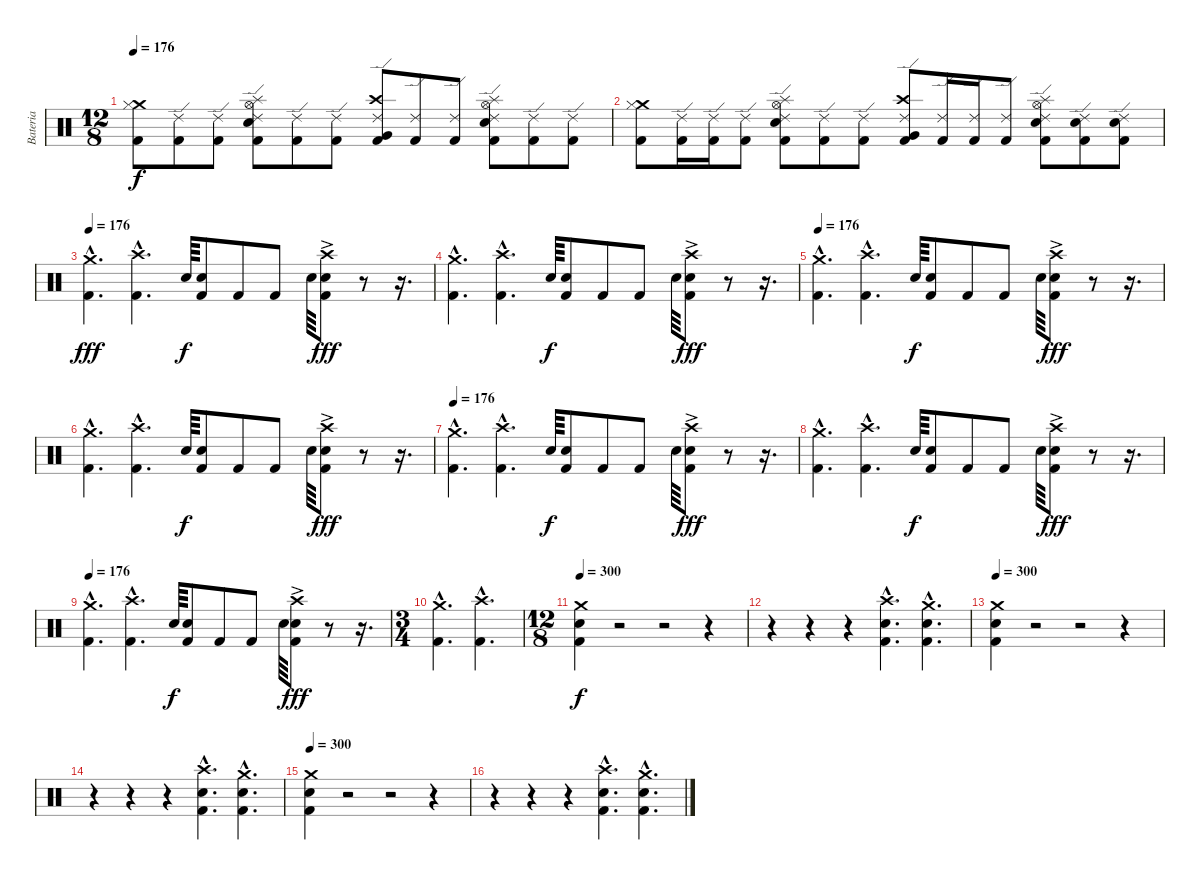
\track ("Bateria" "Bateria") {instrument percussion}
\staff {score}
\articulation defaults
\ts (12 8)
\tempo 176
\clef neutral
\ks c
("Crash medium (hit)" "Hi-Hat (closed)" "Kick (hit) 2").8{dy f} ("Ride (edge) 2" "Kick (hit) 2").8 ("Ride (edge) 2" "Kick (hit) 2").8 ("Splash (hit)" "Snare (hit) 2" "Hi-Hat (open)" "Ride (edge) 2" "Kick (hit) 2").8 ("Ride (edge) 2" "Kick (hit) 2").8 ("Ride (edge) 2" "Kick (hit) 2").8 ("Crash high (hit)" "Very Low Tom (hit)" "Ride (edge) 2" "Kick (hit) 2").8 ("Ride (edge) 2" "Kick (hit) 2").8 ("Ride (edge) 2" "Kick (hit) 2").8 ("Splash (hit)" "Snare (hit) 2" "Hi-Hat (open)" "Ride (edge) 2" "Kick (hit) 2").8 ("Ride (edge) 2" "Kick (hit) 2").8 ("Ride (edge) 2" "Kick (hit) 2").8 |
("Crash medium (hit)" "Hi-Hat (closed)" "Kick (hit) 2").8 ("Ride (edge) 2" "Kick (hit) 2").16 ("Ride (edge) 2" "Kick (hit) 2").16 ("Ride (edge) 2" "Kick (hit) 2").8 ("Splash (hit)" "Snare (hit) 2" "Hi-Hat (open)" "Ride (edge) 2" "Kick (hit) 2").8 ("Ride (edge) 2" "Kick (hit) 2").8 ("Ride (edge) 2" "Kick (hit) 2").8 ("Crash high (hit)" "Very Low Tom (hit)" "Ride (edge) 2" "Kick (hit) 2").8 ("Ride (edge) 2" "Kick (hit) 2").16 ("Ride (edge) 2" "Kick (hit) 2").16 ("Ride (edge) 2" "Kick (hit) 2").8 ("Splash (hit)" "Snare (hit) 2" "Hi-Hat (open)" "Ride (edge) 2" "Kick (hit) 2").8 ("Snare (hit) 2" "Ride (edge) 2" "Kick (hit) 2").8 ("Snare (hit) 2" "Ride (edge) 2" "Kick (hit) 2").8 |
\tempo 176
("Crash medium (hit)"{hac} "Kick (hit) 2"{hac}).4{d dy fff} ("Crash high (hit)"{hac} "Kick (hit) 2"{hac}).4{d} "Snare (hit) 2".64{dy f} ("Snare (hit) 2" "Kick (hit) 2").8 "Kick (hit) 2".8 "Kick (hit) 2".8 "Snare (hit) 2".64 ("Crash high (hit)"{ac} "Snare (hit) 2" "Kick (hit) 2").8{dy fff} r.8 r.16{d} |
("Crash medium (hit)"{hac} "Kick (hit) 2"{hac}).4{d} ("Crash high (hit)"{hac} "Kick (hit) 2"{hac}).4{d} "Snare (hit) 2".64{dy f} ("Snare (hit) 2" "Kick (hit) 2").8 "Kick (hit) 2".8 "Kick (hit) 2".8 "Snare (hit) 2".64 ("Crash high (hit)"{ac} "Snare (hit) 2" "Kick (hit) 2").8{dy fff} r.8 r.16{d} |
\tempo 176
("Crash medium (hit)"{hac} "Kick (hit) 2"{hac}).4{d} ("Crash high (hit)"{hac} "Kick (hit) 2"{hac}).4{d} "Snare (hit) 2".64{dy f} ("Snare (hit) 2" "Kick (hit) 2").8 "Kick (hit) 2".8 "Kick (hit) 2".8 "Snare (hit) 2".64 ("Crash high (hit)"{ac} "Snare (hit) 2" "Kick (hit) 2").8{dy fff} r.8 r.16{d} |
("Crash medium (hit)"{hac} "Kick (hit) 2"{hac}).4{d} ("Crash high (hit)"{hac} "Kick (hit) 2"{hac}).4{d} "Snare (hit) 2".64{dy f} ("Snare (hit) 2" "Kick (hit) 2").8 "Kick (hit) 2".8 "Kick (hit) 2".8 "Snare (hit) 2".64 ("Crash high (hit)"{ac} "Snare (hit) 2" "Kick (hit) 2").8{dy fff} r.8 r.16{d} |
\tempo 176
("Crash medium (hit)"{hac} "Kick (hit) 2"{hac}).4{d} ("Crash high (hit)"{hac} "Kick (hit) 2"{hac}).4{d} "Snare (hit) 2".64{dy f} ("Snare (hit) 2" "Kick (hit) 2").8 "Kick (hit) 2".8 "Kick (hit) 2".8 "Snare (hit) 2".64 ("Crash high (hit)"{ac} "Snare (hit) 2" "Kick (hit) 2").8{dy fff} r.8 r.16{d} |
("Crash medium (hit)"{hac} "Kick (hit) 2"{hac}).4{d} ("Crash high (hit)"{hac} "Kick (hit) 2"{hac}).4{d} "Snare (hit) 2".64{dy f} ("Snare (hit) 2" "Kick (hit) 2").8 "Kick (hit) 2".8 "Kick (hit) 2".8 "Snare (hit) 2".64 ("Crash high (hit)"{ac} "Snare (hit) 2" "Kick (hit) 2").8{dy fff} r.8 r.16{d} |
\tempo 176
("Crash medium (hit)"{hac} "Kick (hit) 2"{hac}).4{d} ("Crash high (hit)"{hac} "Kick (hit) 2"{hac}).4{d} "Snare (hit) 2".64{dy f} ("Snare (hit) 2" "Kick (hit) 2").8 "Kick (hit) 2".8 "Kick (hit) 2".8 "Snare (hit) 2".64 ("Crash high (hit)"{ac} "Snare (hit) 2" "Kick (hit) 2").8{dy fff} r.8 r.16{d} |
\ts (3 4)
("Crash medium (hit)"{hac} "Kick (hit) 2"{hac}).4{d} ("Crash high (hit)"{hac} "Kick (hit) 2"{hac}).4{d} |
\ts (12 8)
\tempo 300
("Crash medium (hit)" "Snare (hit) 2" "Kick (hit) 2").4{dy f} r.2 r.2 r.4 |
r.4 r.4 r.4 ("Crash high (hit)"{hac} "Snare (hit) 2"{hac} "Kick (hit) 2"{hac}).4{d} ("Crash medium (hit)"{hac} "Snare (hit) 2"{hac} "Kick (hit) 2"{hac}).4{d} |
\tempo 300
("Crash medium (hit)" "Snare (hit) 2" "Kick (hit) 2").4 r.2 r.2 r.4 |
r.4 r.4 r.4 ("Crash high (hit)"{hac} "Snare (hit) 2"{hac} "Kick (hit) 2"{hac}).4{d} ("Crash medium (hit)"{hac} "Snare (hit) 2"{hac} "Kick (hit) 2"{hac}).4{d} |
\tempo 300
("Crash medium (hit)" "Snare (hit) 2" "Kick (hit) 2").4 r.2 r.2 r.4 |
r.4 r.4 r.4 ("Crash high (hit)"{hac} "Snare (hit) 2"{hac} "Kick (hit) 2"{hac}).4{d} ("Crash medium (hit)"{hac} "Snare (hit) 2"{hac} "Kick (hit) 2"{hac}).4{d}
